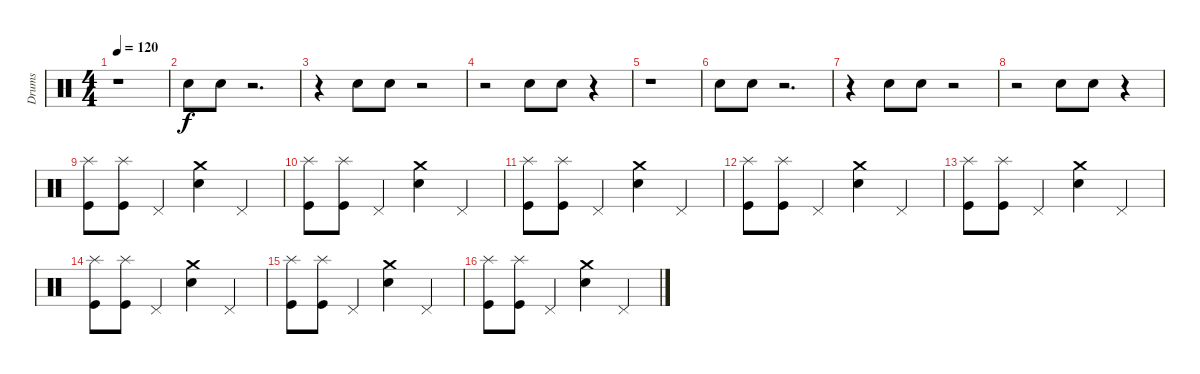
\track ("Drums" "Drums") {instrument percussion}
\staff {score}
\articulation defaults
\ts (4 4)
\tempo 120
\clef neutral
\ks c
r.1{dy f} |
"Snare (hit) 2".8 "Snare (hit) 2".8 r.2{d} |
r.4 "Snare (hit) 2".8 "Snare (hit) 2".8 r.2 |
r.2 "Snare (hit) 2".8 "Snare (hit) 2".8 r.4 |
r.1 |
"Snare (hit) 2".8 "Snare (hit) 2".8 r.2{d} |
r.4 "Snare (hit) 2".8 "Snare (hit) 2".8 r.2 |
r.2 "Snare (hit) 2".8 "Snare (hit) 2".8 r.4 |
("Splash (hit)" "Kick (hit)").8 ("Splash (hit)" "Kick (hit)").8 "Pedal Hi-Hat (hit)".4 ("Crash medium (hit)" "Snare (hit) 2").4 "Pedal Hi-Hat (hit)".4 |
("Splash (hit)" "Kick (hit)").8 ("Splash (hit)" "Kick (hit)").8 "Pedal Hi-Hat (hit)".4 ("Crash medium (hit)" "Snare (hit) 2").4 "Pedal Hi-Hat (hit)".4 |
("Splash (hit)" "Kick (hit)").8 ("Splash (hit)" "Kick (hit)").8 "Pedal Hi-Hat (hit)".4 ("Crash medium (hit)" "Snare (hit) 2").4 "Pedal Hi-Hat (hit)".4 |
("Splash (hit)" "Kick (hit)").8 ("Splash (hit)" "Kick (hit)").8 "Pedal Hi-Hat (hit)".4 ("Crash medium (hit)" "Snare (hit) 2").4 "Pedal Hi-Hat (hit)".4 |
("Splash (hit)" "Kick (hit)").8 ("Splash (hit)" "Kick (hit)").8 "Pedal Hi-Hat (hit)".4 ("Crash medium (hit)" "Snare (hit) 2").4 "Pedal Hi-Hat (hit)".4 |
("Splash (hit)" "Kick (hit)").8 ("Splash (hit)" "Kick (hit)").8 "Pedal Hi-Hat (hit)".4 ("Crash medium (hit)" "Snare (hit) 2").4 "Pedal Hi-Hat (hit)".4 |
("Splash (hit)" "Kick (hit)").8 ("Splash (hit)" "Kick (hit)").8 "Pedal Hi-Hat (hit)".4 ("Crash medium (hit)" "Snare (hit) 2").4 "Pedal Hi-Hat (hit)".4 |
("Splash (hit)" "Kick (hit)").8 ("Splash (hit)" "Kick (hit)").8 "Pedal Hi-Hat (hit)".4 ("Crash medium (hit)" "Snare (hit) 2").4 "Pedal Hi-Hat (hit)".4
